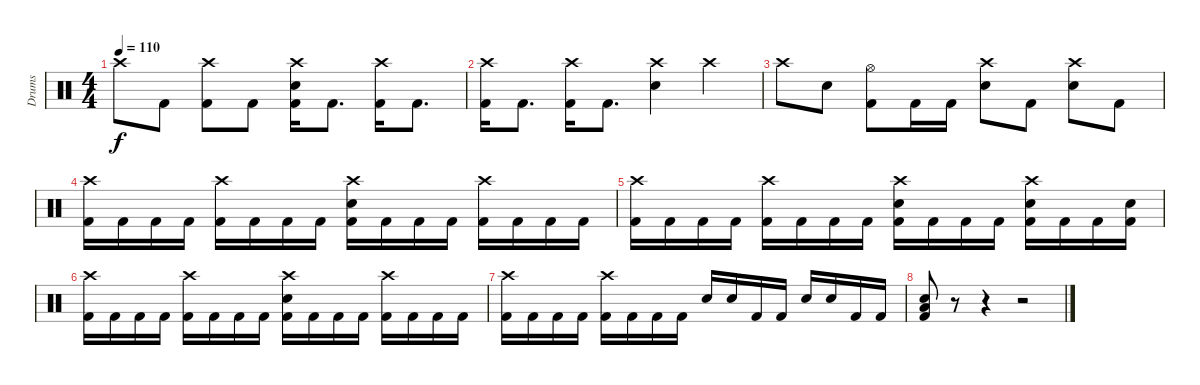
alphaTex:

\track ("Drums" "Drums") {instrument percussion}
\staff {score}
\articulation defaults
\ts (4 4)
\tempo 110
\clef neutral
\ks c "Crash high (hit)".8{dy f} "Kick (hit) 2".8
("Crash high (hit)" "Kick (hit) 2").8 "Kick (hit) 2".8 ("Crash high (hit)" "Electric Snare (hit)" "Kick (hit) 2").16 "Kick (hit) 2".8{d} ("Crash high (hit)" "Kick (hit) 2").16 "Kick (hit) 2".8{d} |
("Crash high (hit)" "Kick (hit) 2").16 "Kick (hit) 2".8{d} ("Crash high (hit)" "Kick (hit) 2").16 "Kick (hit) 2".8{d} ("Crash high (hit)" "Electric Snare (hit)").4 "Crash high (hit)".4 |
"Crash high (hit)".8 "Electric Snare (hit)".8 ("Hi-Hat (open)" "Kick (hit) 2").8 "Kick (hit) 2".16 "Kick (hit) 2".16 ("Crash high (hit)" "Electric Snare (hit)").8 "Kick (hit) 2".8 ("Crash high (hit)" "Electric Snare (hit)").8 "Kick (hit) 2".8 |
("Crash high (hit)" "Kick (hit) 2").16 "Kick (hit) 2".16 "Kick (hit) 2".16 "Kick (hit) 2".16 ("Crash high (hit)" "Kick (hit) 2").16 "Kick (hit) 2".16 "Kick (hit) 2".16 "Kick (hit) 2".16 ("Crash high (hit)" "Electric Snare (hit)" "Kick (hit) 2").16 "Kick (hit) 2".16 "Kick (hit) 2".16 "Kick (hit) 2".16 ("Crash high (hit)" "Kick (hit) 2").16 "Kick (hit) 2".16 "Kick (hit) 2".16 "Kick (hit) 2".16 |
("Crash high (hit)" "Kick (hit) 2").16 "Kick (hit) 2".16 "Kick (hit) 2".16 "Kick (hit) 2".16 ("Crash high (hit)" "Kick (hit) 2").16 "Kick (hit) 2".16 "Kick (hit) 2".16 "Kick (hit) 2".16 ("Crash high (hit)" "Electric Snare (hit)" "Kick (hit) 2").16 "Kick (hit) 2".16 "Kick (hit) 2".16 "Kick (hit) 2".16 ("Crash high (hit)" "Electric Snare (hit)" "Kick (hit) 2").16 "Kick (hit) 2".16 "Kick (hit) 2".16 ("Electric Snare (hit)" "Kick (hit) 2").16 |
("Crash high (hit)" "Kick (hit) 2").16 "Kick (hit) 2".16 "Kick (hit) 2".16 "Kick (hit) 2".16 ("Crash high (hit)" "Kick (hit) 2").16 "Kick (hit) 2".16 "Kick (hit) 2".16 "Kick (hit) 2".16 ("Crash high (hit)" "Electric Snare (hit)" "Kick (hit) 2").16 "Kick (hit) 2".16 "Kick (hit) 2".16 "Kick (hit) 2".16 ("Crash high (hit)" "Kick (hit) 2").16 "Kick (hit) 2".16 "Kick (hit) 2".16 "Kick (hit) 2".16 |
("Crash high (hit)" "Kick (hit) 2").16 "Kick (hit) 2".16 "Kick (hit) 2".16 "Kick (hit) 2".16 ("Crash high (hit)" "Kick (hit) 2").16 "Kick (hit) 2".16 "Kick (hit) 2".16 "Kick (hit) 2".16 "Electric Snare (hit)".16 "Electric Snare (hit)".16 "Kick (hit) 2".16 "Kick (hit) 2".16 "Electric Snare (hit)".16 "Electric Snare (hit)".16 "Kick (hit) 2".16 "Kick (hit) 2".16 |
("Electric Snare (hit)" "Low Floor Tom (hit)" "Kick (hit) 2").8 r.8 r.4 r.2
